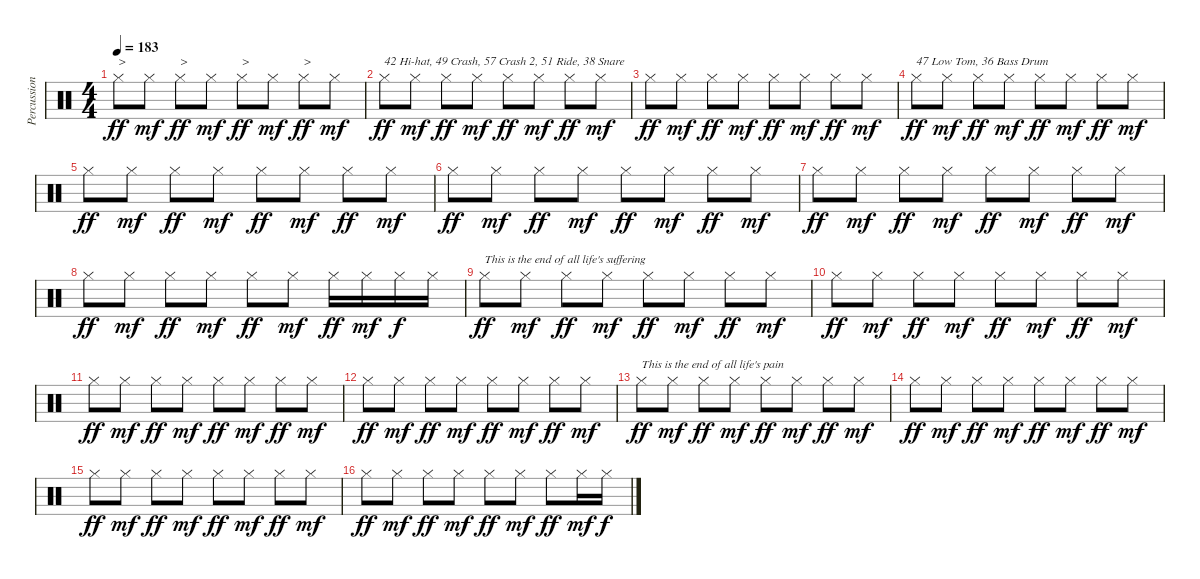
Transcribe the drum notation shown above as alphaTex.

\track ("Percussion" "Percussion") {instrument percussion}
\staff {score}
\articulation defaults
\ts (4 4)
\tempo 183
\clef neutral
\ks c "Hi-Hat (closed)".8{txt ">" dy ff} "Hi-Hat (closed)".8{dy mf} "Hi-Hat (closed)".8{txt ">" dy ff} "Hi-Hat (closed)".8{dy mf} "Hi-Hat (closed)".8{txt ">" dy ff} "Hi-Hat (closed)".8{dy mf} "Hi-Hat (closed)".8{txt ">" dy ff} "Hi-Hat (closed)".8{dy mf}
|
"Hi-Hat (closed)".8{txt "42 Hi-hat, 49 Crash, 57 Crash 2, 51 Ride, 38 Snare" dy ff} "Hi-Hat (closed)".8{dy mf} "Hi-Hat (closed)".8{dy ff} "Hi-Hat (closed)".8{dy mf} "Hi-Hat (closed)".8{dy ff} "Hi-Hat (closed)".8{dy mf} "Hi-Hat (closed)".8{dy ff} "Hi-Hat (closed)".8{dy mf} |
"Hi-Hat (closed)".8{dy ff} "Hi-Hat (closed)".8{dy mf} "Hi-Hat (closed)".8{dy ff} "Hi-Hat (closed)".8{dy mf} "Hi-Hat (closed)".8{dy ff} "Hi-Hat (closed)".8{dy mf} "Hi-Hat (closed)".8{dy ff} "Hi-Hat (closed)".8{dy mf} |
"Hi-Hat (closed)".8{txt "47 Low Tom, 36 Bass Drum" dy ff} "Hi-Hat (closed)".8{dy mf} "Hi-Hat (closed)".8{dy ff} "Hi-Hat (closed)".8{dy mf} "Hi-Hat (closed)".8{dy ff} "Hi-Hat (closed)".8{dy mf} "Hi-Hat (closed)".8{dy ff} "Hi-Hat (closed)".8{dy mf} |
"Hi-Hat (closed)".8{dy ff} "Hi-Hat (closed)".8{dy mf} "Hi-Hat (closed)".8{dy ff} "Hi-Hat (closed)".8{dy mf} "Hi-Hat (closed)".8{dy ff} "Hi-Hat (closed)".8{dy mf} "Hi-Hat (closed)".8{dy ff} "Hi-Hat (closed)".8{dy mf} |
"Hi-Hat (closed)".8{dy ff} "Hi-Hat (closed)".8{dy mf} "Hi-Hat (closed)".8{dy ff} "Hi-Hat (closed)".8{dy mf} "Hi-Hat (closed)".8{dy ff} "Hi-Hat (closed)".8{dy mf} "Hi-Hat (closed)".8{dy ff} "Hi-Hat (closed)".8{dy mf} |
"Hi-Hat (closed)".8{dy ff} "Hi-Hat (closed)".8{dy mf} "Hi-Hat (closed)".8{dy ff} "Hi-Hat (closed)".8{dy mf} "Hi-Hat (closed)".8{dy ff} "Hi-Hat (closed)".8{dy mf} "Hi-Hat (closed)".8{dy ff} "Hi-Hat (closed)".8{dy mf} |
"Hi-Hat (closed)".8{dy ff} "Hi-Hat (closed)".8{dy mf} "Hi-Hat (closed)".8{dy ff} "Hi-Hat (closed)".8{dy mf} "Hi-Hat (closed)".8{dy ff} "Hi-Hat (closed)".8{dy mf} "Hi-Hat (closed)".16{dy ff} "Hi-Hat (closed)".16{dy mf} "Hi-Hat (closed)".16{dy f} "Hi-Hat (closed)".16 |
"Hi-Hat (closed)".8{txt "This is the end of all life's suffering" dy ff} "Hi-Hat (closed)".8{dy mf} "Hi-Hat (closed)".8{dy ff} "Hi-Hat (closed)".8{dy mf} "Hi-Hat (closed)".8{dy ff} "Hi-Hat (closed)".8{dy mf} "Hi-Hat (closed)".8{dy ff} "Hi-Hat (closed)".8{dy mf} |
"Hi-Hat (closed)".8{dy ff} "Hi-Hat (closed)".8{dy mf} "Hi-Hat (closed)".8{dy ff} "Hi-Hat (closed)".8{dy mf} "Hi-Hat (closed)".8{dy ff} "Hi-Hat (closed)".8{dy mf} "Hi-Hat (closed)".8{dy ff} "Hi-Hat (closed)".8{dy mf} |
"Hi-Hat (closed)".8{dy ff} "Hi-Hat (closed)".8{dy mf} "Hi-Hat (closed)".8{dy ff} "Hi-Hat (closed)".8{dy mf} "Hi-Hat (closed)".8{dy ff} "Hi-Hat (closed)".8{dy mf} "Hi-Hat (closed)".8{dy ff} "Hi-Hat (closed)".8{dy mf} |
"Hi-Hat (closed)".8{dy ff} "Hi-Hat (closed)".8{dy mf} "Hi-Hat (closed)".8{dy ff} "Hi-Hat (closed)".8{dy mf} "Hi-Hat (closed)".8{dy ff} "Hi-Hat (closed)".8{dy mf} "Hi-Hat (closed)".8{dy ff} "Hi-Hat (closed)".8{dy mf} |
"Hi-Hat (closed)".8{txt "This is the end of all life's pain" dy ff} "Hi-Hat (closed)".8{dy mf} "Hi-Hat (closed)".8{dy ff} "Hi-Hat (closed)".8{dy mf} "Hi-Hat (closed)".8{dy ff} "Hi-Hat (closed)".8{dy mf} "Hi-Hat (closed)".8{dy ff} "Hi-Hat (closed)".8{dy mf} |
"Hi-Hat (closed)".8{dy ff} "Hi-Hat (closed)".8{dy mf} "Hi-Hat (closed)".8{dy ff} "Hi-Hat (closed)".8{dy mf} "Hi-Hat (closed)".8{dy ff} "Hi-Hat (closed)".8{dy mf} "Hi-Hat (closed)".8{dy ff} "Hi-Hat (closed)".8{dy mf} |
"Hi-Hat (closed)".8{dy ff} "Hi-Hat (closed)".8{dy mf} "Hi-Hat (closed)".8{dy ff} "Hi-Hat (closed)".8{dy mf} "Hi-Hat (closed)".8{dy ff} "Hi-Hat (closed)".8{dy mf} "Hi-Hat (closed)".8{dy ff} "Hi-Hat (closed)".8{dy mf} |
"Hi-Hat (closed)".8{dy ff} "Hi-Hat (closed)".8{dy mf} "Hi-Hat (closed)".8{dy ff} "Hi-Hat (closed)".8{dy mf} "Hi-Hat (closed)".8{dy ff} "Hi-Hat (closed)".8{dy mf} "Hi-Hat (closed)".8{dy ff} "Hi-Hat (closed)".16{dy mf} "Hi-Hat (closed)".16{dy f}
